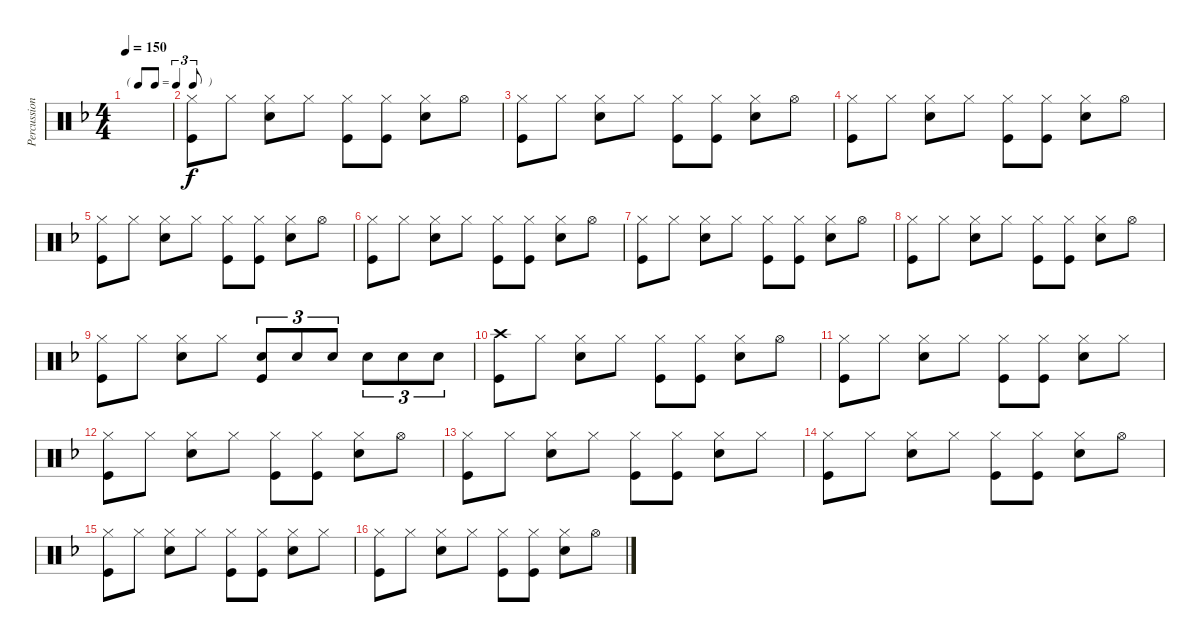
\track ("Percussion" "Percussion") {instrument percussion}
\staff {score}
\articulation defaults
\ts (4 4)
\tf triplet8th
\tempo 150
\clef neutral
\ks f
|
("Hi-Hat (closed)" "Kick (hit)").8 "Hi-Hat (closed)".8 ("Hi-Hat (closed)" "Snare (hit) 2").8 "Hi-Hat (closed)".8 ("Hi-Hat (closed)" "Kick (hit)").8 ("Hi-Hat (closed)" "Kick (hit)").8 ("Hi-Hat (closed)" "Snare (hit) 2").8 "Hi-Hat (open)".8 |
("Hi-Hat (closed)" "Kick (hit)").8 "Hi-Hat (closed)".8 ("Hi-Hat (closed)" "Snare (hit) 2").8 "Hi-Hat (closed)".8 ("Hi-Hat (closed)" "Kick (hit)").8 ("Hi-Hat (closed)" "Kick (hit)").8 ("Hi-Hat (closed)" "Snare (hit) 2").8 "Hi-Hat (open)".8 |
("Hi-Hat (closed)" "Kick (hit)").8 "Hi-Hat (closed)".8 ("Hi-Hat (closed)" "Snare (hit) 2").8 "Hi-Hat (closed)".8 ("Hi-Hat (closed)" "Kick (hit)").8 ("Hi-Hat (closed)" "Kick (hit)").8 ("Hi-Hat (closed)" "Snare (hit) 2").8 "Hi-Hat (open)".8 |
("Hi-Hat (closed)" "Kick (hit)").8 "Hi-Hat (closed)".8 ("Hi-Hat (closed)" "Snare (hit) 2").8 "Hi-Hat (closed)".8 ("Hi-Hat (closed)" "Kick (hit)").8 ("Hi-Hat (closed)" "Kick (hit)").8 ("Hi-Hat (closed)" "Snare (hit) 2").8 "Hi-Hat (open)".8 |
("Hi-Hat (closed)" "Kick (hit)").8 "Hi-Hat (closed)".8 ("Hi-Hat (closed)" "Snare (hit) 2").8 "Hi-Hat (closed)".8 ("Hi-Hat (closed)" "Kick (hit)").8 ("Hi-Hat (closed)" "Kick (hit)").8 ("Hi-Hat (closed)" "Snare (hit) 2").8 "Hi-Hat (open)".8 |
("Hi-Hat (closed)" "Kick (hit)").8 "Hi-Hat (closed)".8 ("Hi-Hat (closed)" "Snare (hit) 2").8 "Hi-Hat (closed)".8 ("Hi-Hat (closed)" "Kick (hit)").8 ("Hi-Hat (closed)" "Kick (hit)").8 ("Hi-Hat (closed)" "Snare (hit) 2").8 "Hi-Hat (open)".8 |
("Hi-Hat (closed)" "Kick (hit)").8 "Hi-Hat (closed)".8 ("Hi-Hat (closed)" "Snare (hit) 2").8 "Hi-Hat (closed)".8 ("Hi-Hat (closed)" "Kick (hit)").8 ("Hi-Hat (closed)" "Kick (hit)").8 ("Hi-Hat (closed)" "Snare (hit) 2").8 "Hi-Hat (open)".8 |
("Hi-Hat (closed)" "Kick (hit)").8 "Hi-Hat (closed)".8 ("Hi-Hat (closed)" "Snare (hit) 2").8 "Hi-Hat (closed)".8 ("Snare (hit) 2" "Kick (hit)").8{tu (3 2)} "Snare (hit) 2".8{tu (3 2)} "Snare (hit) 2".8{tu (3 2)} "Snare (hit) 2".8{tu (3 2)} "Snare (hit) 2".8{tu (3 2)} "Snare (hit) 2".8{tu (3 2)} |
("Crash high (hit)" "Kick (hit)").8 "Hi-Hat (closed)".8 ("Hi-Hat (closed)" "Snare (hit) 2").8 "Hi-Hat (closed)".8 ("Hi-Hat (closed)" "Kick (hit)").8 ("Hi-Hat (closed)" "Kick (hit)").8 ("Hi-Hat (closed)" "Snare (hit) 2").8 "Hi-Hat (open)".8 |
("Hi-Hat (closed)" "Kick (hit)").8 "Hi-Hat (closed)".8 ("Hi-Hat (closed)" "Snare (hit) 2").8 "Hi-Hat (closed)".8 ("Hi-Hat (closed)" "Kick (hit)").8 ("Hi-Hat (closed)" "Kick (hit)").8 ("Hi-Hat (closed)" "Snare (hit) 2").8 "Hi-Hat (closed)".8 |
("Hi-Hat (closed)" "Kick (hit)").8 "Hi-Hat (closed)".8 ("Hi-Hat (closed)" "Snare (hit) 2").8 "Hi-Hat (closed)".8 ("Hi-Hat (closed)" "Kick (hit)").8 ("Hi-Hat (closed)" "Kick (hit)").8 ("Hi-Hat (closed)" "Snare (hit) 2").8 "Hi-Hat (open)".8 |
("Hi-Hat (closed)" "Kick (hit)").8 "Hi-Hat (closed)".8 ("Hi-Hat (closed)" "Snare (hit) 2").8 "Hi-Hat (closed)".8 ("Hi-Hat (closed)" "Kick (hit)").8 ("Hi-Hat (closed)" "Kick (hit)").8 ("Hi-Hat (closed)" "Snare (hit) 2").8 "Hi-Hat (closed)".8 |
("Hi-Hat (closed)" "Kick (hit)").8 "Hi-Hat (closed)".8 ("Hi-Hat (closed)" "Snare (hit) 2").8 "Hi-Hat (closed)".8 ("Hi-Hat (closed)" "Kick (hit)").8 ("Hi-Hat (closed)" "Kick (hit)").8 ("Hi-Hat (closed)" "Snare (hit) 2").8 "Hi-Hat (open)".8 |
("Hi-Hat (closed)" "Kick (hit)").8 "Hi-Hat (closed)".8 ("Hi-Hat (closed)" "Snare (hit) 2").8 "Hi-Hat (closed)".8 ("Hi-Hat (closed)" "Kick (hit)").8 ("Hi-Hat (closed)" "Kick (hit)").8 ("Hi-Hat (closed)" "Snare (hit) 2").8 "Hi-Hat (closed)".8 |
("Hi-Hat (closed)" "Kick (hit)").8 "Hi-Hat (closed)".8 ("Hi-Hat (closed)" "Snare (hit) 2").8 "Hi-Hat (closed)".8 ("Hi-Hat (closed)" "Kick (hit)").8 ("Hi-Hat (closed)" "Kick (hit)").8 ("Hi-Hat (closed)" "Snare (hit) 2").8 "Hi-Hat (open)".8
